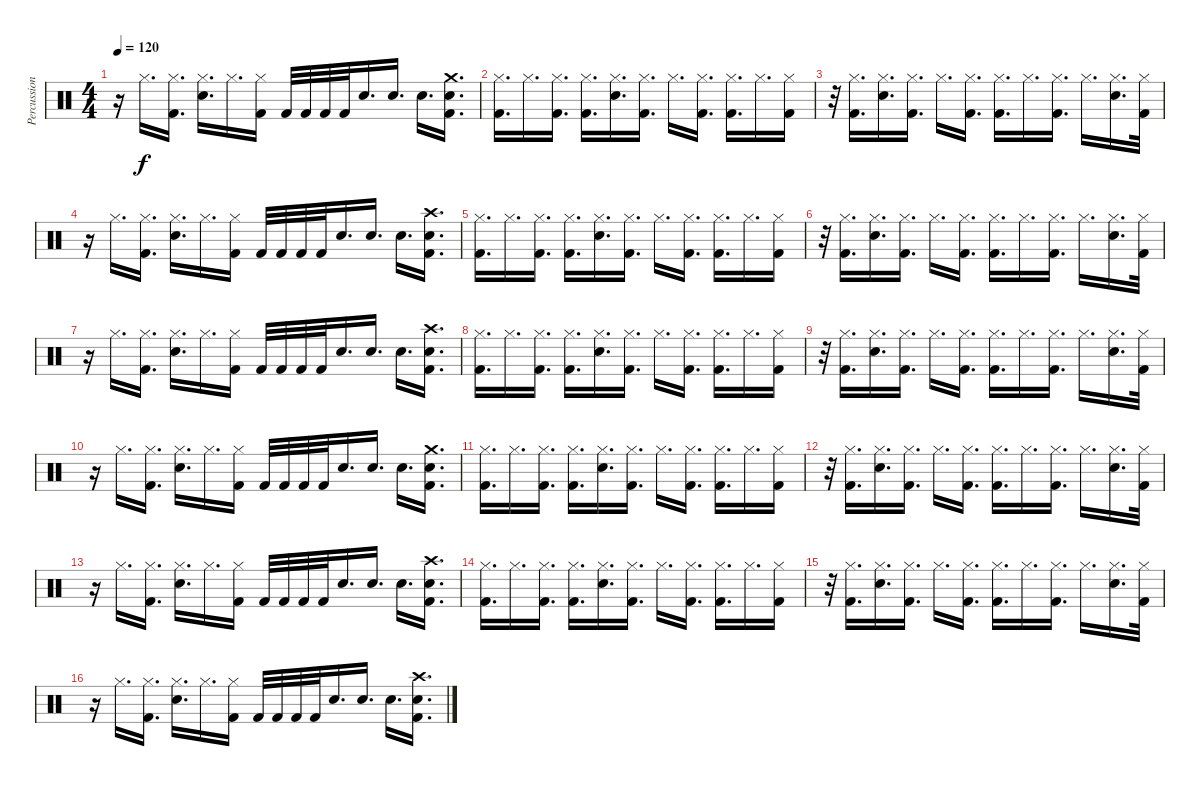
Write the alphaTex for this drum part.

\track ("Percussion" "Percussion") {instrument percussion}
\staff {score}
\articulation defaults
\ts (4 4)
\tempo 120
\clef neutral
\ks c
r.16{dy f} "Hi-Hat (closed)".16{d} ("Hi-Hat (closed)" "Kick (hit) 2").16{d} ("Hi-Hat (closed)" "Electric Snare (hit)").16{d} "Hi-Hat (closed)".16{d} ("Hi-Hat (closed)" "Kick (hit) 2").16 "Kick (hit) 2".32 "Kick (hit) 2".32 "Kick (hit) 2".32 "Kick (hit) 2".32 "Electric Snare (hit)".16{d} "Electric Snare (hit)".16{d} "Electric Snare (hit)".16{d} ("Crash medium (hit)" "Electric Snare (hit)" "Kick (hit) 2").16{d} |
("Hi-Hat (closed)" "Kick (hit) 2").16{d} "Hi-Hat (closed)".16{d} ("Hi-Hat (closed)" "Kick (hit) 2").16{d} ("Hi-Hat (closed)" "Kick (hit) 2").16{d} ("Hi-Hat (closed)" "Electric Snare (hit)").16{d} ("Hi-Hat (closed)" "Kick (hit) 2").16{d} "Hi-Hat (closed)".16{d} ("Hi-Hat (closed)" "Kick (hit) 2").16{d} ("Hi-Hat (closed)" "Kick (hit) 2").16{d} "Hi-Hat (closed)".16{d} ("Hi-Hat (closed)" "Kick (hit) 2").16 |
r.32 ("Hi-Hat (closed)" "Kick (hit) 2").16{d} ("Hi-Hat (closed)" "Electric Snare (hit)").16{d} ("Hi-Hat (closed)" "Kick (hit) 2").16{d} "Hi-Hat (closed)".16{d} ("Hi-Hat (closed)" "Kick (hit) 2").16{d} ("Hi-Hat (closed)" "Kick (hit) 2").16{d} "Hi-Hat (closed)".16{d} ("Hi-Hat (closed)" "Kick (hit) 2").16{d} "Hi-Hat (closed)".16{d} ("Hi-Hat (closed)" "Electric Snare (hit)").16{d} ("Hi-Hat (closed)" "Kick (hit) 2").32 |
r.16 "Hi-Hat (closed)".16{d} ("Hi-Hat (closed)" "Kick (hit) 2").16{d} ("Hi-Hat (closed)" "Electric Snare (hit)").16{d} "Hi-Hat (closed)".16{d} ("Hi-Hat (closed)" "Kick (hit) 2").16 "Kick (hit) 2".32 "Kick (hit) 2".32 "Kick (hit) 2".32 "Kick (hit) 2".32 "Electric Snare (hit)".16{d} "Electric Snare (hit)".16{d} "Electric Snare (hit)".16{d} ("Crash high (hit)" "Electric Snare (hit)" "Kick (hit) 2").16{d} |
("Hi-Hat (closed)" "Kick (hit) 2").16{d} "Hi-Hat (closed)".16{d} ("Hi-Hat (closed)" "Kick (hit) 2").16{d} ("Hi-Hat (closed)" "Kick (hit) 2").16{d} ("Hi-Hat (closed)" "Electric Snare (hit)").16{d} ("Hi-Hat (closed)" "Kick (hit) 2").16{d} "Hi-Hat (closed)".16{d} ("Hi-Hat (closed)" "Kick (hit) 2").16{d} ("Hi-Hat (closed)" "Kick (hit) 2").16{d} "Hi-Hat (closed)".16{d} ("Hi-Hat (closed)" "Kick (hit) 2").16 |
r.32 ("Hi-Hat (closed)" "Kick (hit) 2").16{d} ("Hi-Hat (closed)" "Electric Snare (hit)").16{d} ("Hi-Hat (closed)" "Kick (hit) 2").16{d} "Hi-Hat (closed)".16{d} ("Hi-Hat (closed)" "Kick (hit) 2").16{d} ("Hi-Hat (closed)" "Kick (hit) 2").16{d} "Hi-Hat (closed)".16{d} ("Hi-Hat (closed)" "Kick (hit) 2").16{d} "Hi-Hat (closed)".16{d} ("Hi-Hat (closed)" "Electric Snare (hit)").16{d} ("Hi-Hat (closed)" "Kick (hit) 2").32 |
r.16 "Hi-Hat (closed)".16{d} ("Hi-Hat (closed)" "Kick (hit) 2").16{d} ("Hi-Hat (closed)" "Electric Snare (hit)").16{d} "Hi-Hat (closed)".16{d} ("Hi-Hat (closed)" "Kick (hit) 2").16 "Kick (hit) 2".32 "Kick (hit) 2".32 "Kick (hit) 2".32 "Kick (hit) 2".32 "Electric Snare (hit)".16{d} "Electric Snare (hit)".16{d} "Electric Snare (hit)".16{d} ("Crash high (hit)" "Electric Snare (hit)" "Kick (hit) 2").16{d} |
("Hi-Hat (closed)" "Kick (hit) 2").16{d} "Hi-Hat (closed)".16{d} ("Hi-Hat (closed)" "Kick (hit) 2").16{d} ("Hi-Hat (closed)" "Kick (hit) 2").16{d} ("Hi-Hat (closed)" "Electric Snare (hit)").16{d} ("Hi-Hat (closed)" "Kick (hit) 2").16{d} "Hi-Hat (closed)".16{d} ("Hi-Hat (closed)" "Kick (hit) 2").16{d} ("Hi-Hat (closed)" "Kick (hit) 2").16{d} "Hi-Hat (closed)".16{d} ("Hi-Hat (closed)" "Kick (hit) 2").16 |
r.32 ("Hi-Hat (closed)" "Kick (hit) 2").16{d} ("Hi-Hat (closed)" "Electric Snare (hit)").16{d} ("Hi-Hat (closed)" "Kick (hit) 2").16{d} "Hi-Hat (closed)".16{d} ("Hi-Hat (closed)" "Kick (hit) 2").16{d} ("Hi-Hat (closed)" "Kick (hit) 2").16{d} "Hi-Hat (closed)".16{d} ("Hi-Hat (closed)" "Kick (hit) 2").16{d} "Hi-Hat (closed)".16{d} ("Hi-Hat (closed)" "Electric Snare (hit)").16{d} ("Hi-Hat (closed)" "Kick (hit) 2").32 |
r.16 "Hi-Hat (closed)".16{d} ("Hi-Hat (closed)" "Kick (hit) 2").16{d} ("Hi-Hat (closed)" "Electric Snare (hit)").16{d} "Hi-Hat (closed)".16{d} ("Hi-Hat (closed)" "Kick (hit) 2").16 "Kick (hit) 2".32 "Kick (hit) 2".32 "Kick (hit) 2".32 "Kick (hit) 2".32 "Electric Snare (hit)".16{d} "Electric Snare (hit)".16{d} "Electric Snare (hit)".16{d} ("Crash medium (hit)" "Electric Snare (hit)" "Kick (hit) 2").16{d} |
("Hi-Hat (closed)" "Kick (hit) 2").16{d} "Hi-Hat (closed)".16{d} ("Hi-Hat (closed)" "Kick (hit) 2").16{d} ("Hi-Hat (closed)" "Kick (hit) 2").16{d} ("Hi-Hat (closed)" "Electric Snare (hit)").16{d} ("Hi-Hat (closed)" "Kick (hit) 2").16{d} "Hi-Hat (closed)".16{d} ("Hi-Hat (closed)" "Kick (hit) 2").16{d} ("Hi-Hat (closed)" "Kick (hit) 2").16{d} "Hi-Hat (closed)".16{d} ("Hi-Hat (closed)" "Kick (hit) 2").16 |
r.32 ("Hi-Hat (closed)" "Kick (hit) 2").16{d} ("Hi-Hat (closed)" "Electric Snare (hit)").16{d} ("Hi-Hat (closed)" "Kick (hit) 2").16{d} "Hi-Hat (closed)".16{d} ("Hi-Hat (closed)" "Kick (hit) 2").16{d} ("Hi-Hat (closed)" "Kick (hit) 2").16{d} "Hi-Hat (closed)".16{d} ("Hi-Hat (closed)" "Kick (hit) 2").16{d} "Hi-Hat (closed)".16{d} ("Hi-Hat (closed)" "Electric Snare (hit)").16{d} ("Hi-Hat (closed)" "Kick (hit) 2").32 |
r.16 "Hi-Hat (closed)".16{d} ("Hi-Hat (closed)" "Kick (hit) 2").16{d} ("Hi-Hat (closed)" "Electric Snare (hit)").16{d} "Hi-Hat (closed)".16{d} ("Hi-Hat (closed)" "Kick (hit) 2").16 "Kick (hit) 2".32 "Kick (hit) 2".32 "Kick (hit) 2".32 "Kick (hit) 2".32 "Electric Snare (hit)".16{d} "Electric Snare (hit)".16{d} "Electric Snare (hit)".16{d} ("Crash high (hit)" "Electric Snare (hit)" "Kick (hit) 2").16{d} |
("Hi-Hat (closed)" "Kick (hit) 2").16{d} "Hi-Hat (closed)".16{d} ("Hi-Hat (closed)" "Kick (hit) 2").16{d} ("Hi-Hat (closed)" "Kick (hit) 2").16{d} ("Hi-Hat (closed)" "Electric Snare (hit)").16{d} ("Hi-Hat (closed)" "Kick (hit) 2").16{d} "Hi-Hat (closed)".16{d} ("Hi-Hat (closed)" "Kick (hit) 2").16{d} ("Hi-Hat (closed)" "Kick (hit) 2").16{d} "Hi-Hat (closed)".16{d} ("Hi-Hat (closed)" "Kick (hit) 2").16 |
r.32 ("Hi-Hat (closed)" "Kick (hit) 2").16{d} ("Hi-Hat (closed)" "Electric Snare (hit)").16{d} ("Hi-Hat (closed)" "Kick (hit) 2").16{d} "Hi-Hat (closed)".16{d} ("Hi-Hat (closed)" "Kick (hit) 2").16{d} ("Hi-Hat (closed)" "Kick (hit) 2").16{d} "Hi-Hat (closed)".16{d} ("Hi-Hat (closed)" "Kick (hit) 2").16{d} "Hi-Hat (closed)".16{d} ("Hi-Hat (closed)" "Electric Snare (hit)").16{d} ("Hi-Hat (closed)" "Kick (hit) 2").32 |
r.16 "Hi-Hat (closed)".16{d} ("Hi-Hat (closed)" "Kick (hit) 2").16{d} ("Hi-Hat (closed)" "Electric Snare (hit)").16{d} "Hi-Hat (closed)".16{d} ("Hi-Hat (closed)" "Kick (hit) 2").16 "Kick (hit) 2".32 "Kick (hit) 2".32 "Kick (hit) 2".32 "Kick (hit) 2".32 "Electric Snare (hit)".16{d} "Electric Snare (hit)".16{d} "Electric Snare (hit)".16{d} ("Crash high (hit)" "Electric Snare (hit)" "Kick (hit) 2").16{d}
